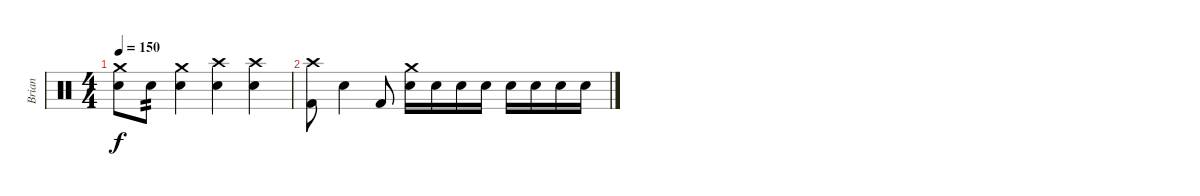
\track ("Brian" "Brian") {instrument percussion}
\staff {score}
\articulation defaults
\ts (4 4)
\tempo 150
\clef neutral
\ks c
("Crash medium (hit)" "Snare (hit) 2").8{dy f} "Snare (hit) 2".8{tp 2} ("Crash medium (hit)" "Snare (hit) 2").4 ("Crash high (hit)" "Snare (hit) 2").4 ("Crash high (hit)" "Snare (hit) 2").4 |
("Crash high (hit)" "Kick (hit) 2").8 "Snare (hit) 2".4 "Kick (hit) 2".8 ("Crash medium (hit)" "Snare (hit) 2").16 "Snare (hit) 2".16 "Snare (hit) 2".16 "Snare (hit) 2".16 "Snare (hit) 2".16 "Snare (hit) 2".16 "Snare (hit) 2".16 "Snare (hit) 2".16
